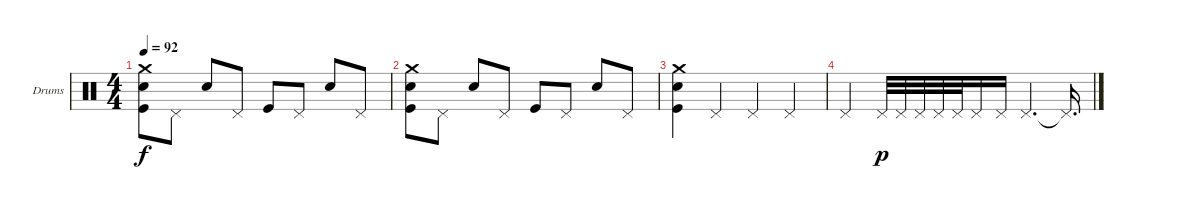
\defaultSystemsLayout 4
\bracketExtendMode groupsimilarinstruments
\firstSystemTrackNameOrientation horizontal
\otherSystemsTrackNameOrientation horizontal
\track ("Е. Кулаков" "Drums") {instrument percussion}
\staff {score}
\articulation defaults
\ts (4 4)
\tempo 92
\clef neutral
\ks c
("Kick (hit)" "Snare (hit) 2" "Crash medium (hit)").8{dy f} "Pedal Hi-Hat (hit)".8 "Snare (hit) 2".8 "Pedal Hi-Hat (hit)".8 "Kick (hit)".8 "Pedal Hi-Hat (hit)".8 "Snare (hit) 2".8 "Pedal Hi-Hat (hit)".8 |
("Kick (hit)" "Snare (hit) 2" "Crash medium (hit)").8 "Pedal Hi-Hat (hit)".8 "Snare (hit) 2".8 "Pedal Hi-Hat (hit)".8 "Kick (hit)".8 "Pedal Hi-Hat (hit)".8 "Snare (hit) 2".8 "Pedal Hi-Hat (hit)".8 |
("Kick (hit)" "Snare (hit) 2" "Crash medium (hit)").4 "Pedal Hi-Hat (hit)".4 "Pedal Hi-Hat (hit)".4 "Pedal Hi-Hat (hit)".4 |
"Pedal Hi-Hat (hit)".4 "Pedal Hi-Hat (hit)".32{dy p} "Pedal Hi-Hat (hit)".32 "Pedal Hi-Hat (hit)".32 "Pedal Hi-Hat (hit)".32 "Pedal Hi-Hat (hit)".32 "Pedal Hi-Hat (hit)".16 "Pedal Hi-Hat (hit)".16 "Pedal Hi-Hat (hit)".4{d} "Pedal Hi-Hat (hit)"{t}.16{d}
